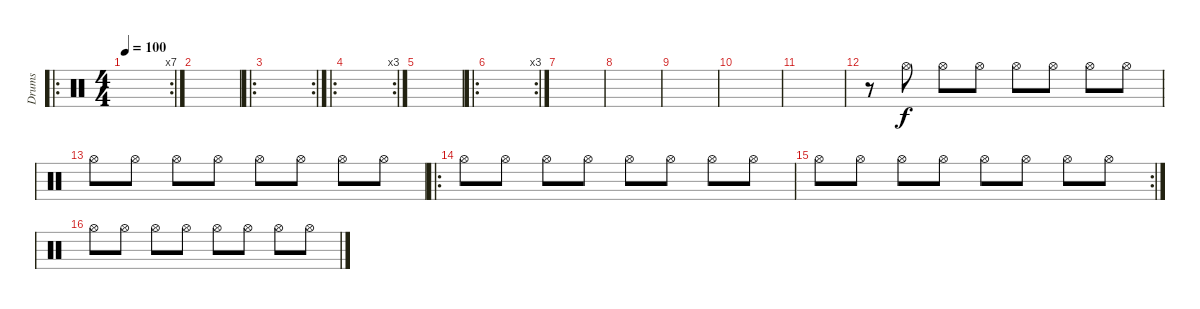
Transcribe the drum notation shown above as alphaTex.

\track ("Drums" "Drums") {instrument percussion}
\staff {score}
\articulation defaults
\ro
\rc 7
\ts (4 4)
\tempo 100
\clef neutral
\ks c
|
|
\ro
\rc 2
|
\ro
\rc 3
|
|
\ro
\rc 3
|
|
|
|
|
|
r.8 "Hi-Hat (open)".8 "Hi-Hat (open)".8 "Hi-Hat (open)".8 "Hi-Hat (open)".8 "Hi-Hat (open)".8 "Hi-Hat (open)".8 "Hi-Hat (open)".8 |
"Hi-Hat (open)".8 "Hi-Hat (open)".8 "Hi-Hat (open)".8 "Hi-Hat (open)".8 "Hi-Hat (open)".8 "Hi-Hat (open)".8 "Hi-Hat (open)".8 "Hi-Hat (open)".8 |
\ro "Hi-Hat (open)".8 "Hi-Hat (open)".8 "Hi-Hat (open)".8 "Hi-Hat (open)".8 "Hi-Hat (open)".8 "Hi-Hat (open)".8 "Hi-Hat (open)".8 "Hi-Hat (open)".8
|
\rc 2 "Hi-Hat (open)".8 "Hi-Hat (open)".8 "Hi-Hat (open)".8 "Hi-Hat (open)".8 "Hi-Hat (open)".8 "Hi-Hat (open)".8 "Hi-Hat (open)".8 "Hi-Hat (open)".8
|
"Hi-Hat (open)".8 "Hi-Hat (open)".8 "Hi-Hat (open)".8 "Hi-Hat (open)".8 "Hi-Hat (open)".8 "Hi-Hat (open)".8 "Hi-Hat (open)".8 "Hi-Hat (open)".8
